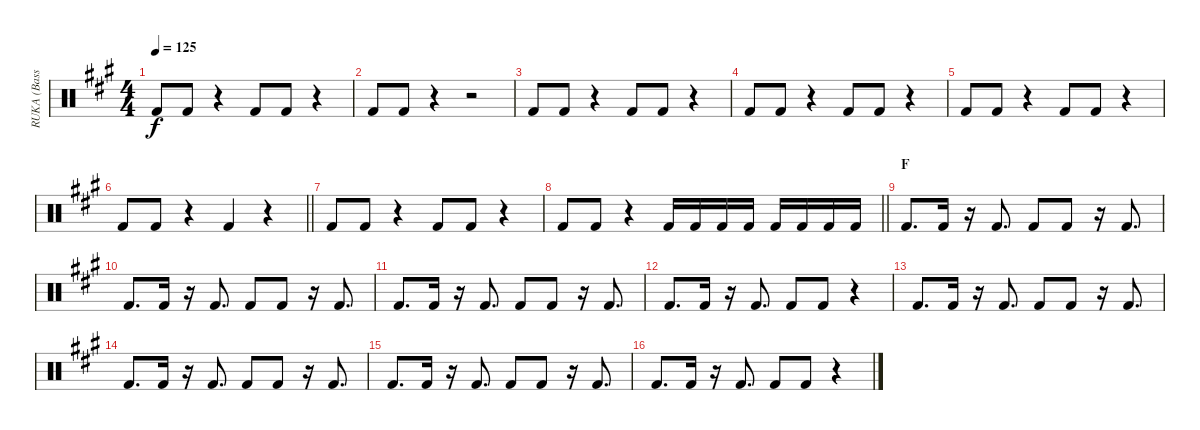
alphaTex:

\track ("RUKA (Bass Drum)" "RUKA (Bass") {instrument percussion}
\staff {score}
\articulation defaults
\ts (4 4)
\tempo 125
\clef neutral
\ks a "Kick (hit) 2".8{dy f} "Kick (hit) 2".8
r.4 "Kick (hit) 2".8 "Kick (hit) 2".8 r.4 |
"Kick (hit) 2".8 "Kick (hit) 2".8 r.4 r.2 |
"Kick (hit) 2".8 "Kick (hit) 2".8 r.4 "Kick (hit) 2".8 "Kick (hit) 2".8 r.4 |
"Kick (hit) 2".8 "Kick (hit) 2".8 r.4 "Kick (hit) 2".8 "Kick (hit) 2".8 r.4 |
"Kick (hit) 2".8 "Kick (hit) 2".8 r.4 "Kick (hit) 2".8 "Kick (hit) 2".8 r.4 |
\barLineRight lightlight "Kick (hit) 2".8 "Kick (hit) 2".8
r.4 "Kick (hit) 2".4 r.4 |
"Kick (hit) 2".8 "Kick (hit) 2".8 r.4 "Kick (hit) 2".8 "Kick (hit) 2".8 r.4 |
\barLineRight lightlight "Kick (hit) 2".8 "Kick (hit) 2".8
r.4 "Kick (hit) 2".16 "Kick (hit) 2".16 "Kick (hit) 2".16 "Kick (hit) 2".16 "Kick (hit) 2".16 "Kick (hit) 2".16 "Kick (hit) 2".16 "Kick (hit) 2".16 |
\section ("" "F")
"Kick (hit) 2".8{d} "Kick (hit) 2".16 r.16 "Kick (hit) 2".8{d} "Kick (hit) 2".8 "Kick (hit) 2".8 r.16 "Kick (hit) 2".8{d} |
"Kick (hit) 2".8{d} "Kick (hit) 2".16 r.16 "Kick (hit) 2".8{d} "Kick (hit) 2".8 "Kick (hit) 2".8 r.16 "Kick (hit) 2".8{d} |
"Kick (hit) 2".8{d} "Kick (hit) 2".16 r.16 "Kick (hit) 2".8{d} "Kick (hit) 2".8 "Kick (hit) 2".8 r.16 "Kick (hit) 2".8{d} |
"Kick (hit) 2".8{d} "Kick (hit) 2".16 r.16 "Kick (hit) 2".8{d} "Kick (hit) 2".8 "Kick (hit) 2".8 r.4 |
"Kick (hit) 2".8{d} "Kick (hit) 2".16 r.16 "Kick (hit) 2".8{d} "Kick (hit) 2".8 "Kick (hit) 2".8 r.16 "Kick (hit) 2".8{d} |
"Kick (hit) 2".8{d} "Kick (hit) 2".16 r.16 "Kick (hit) 2".8{d} "Kick (hit) 2".8 "Kick (hit) 2".8 r.16 "Kick (hit) 2".8{d} |
"Kick (hit) 2".8{d} "Kick (hit) 2".16 r.16 "Kick (hit) 2".8{d} "Kick (hit) 2".8 "Kick (hit) 2".8 r.16 "Kick (hit) 2".8{d} |
"Kick (hit) 2".8{d} "Kick (hit) 2".16 r.16 "Kick (hit) 2".8{d} "Kick (hit) 2".8 "Kick (hit) 2".8 r.4
